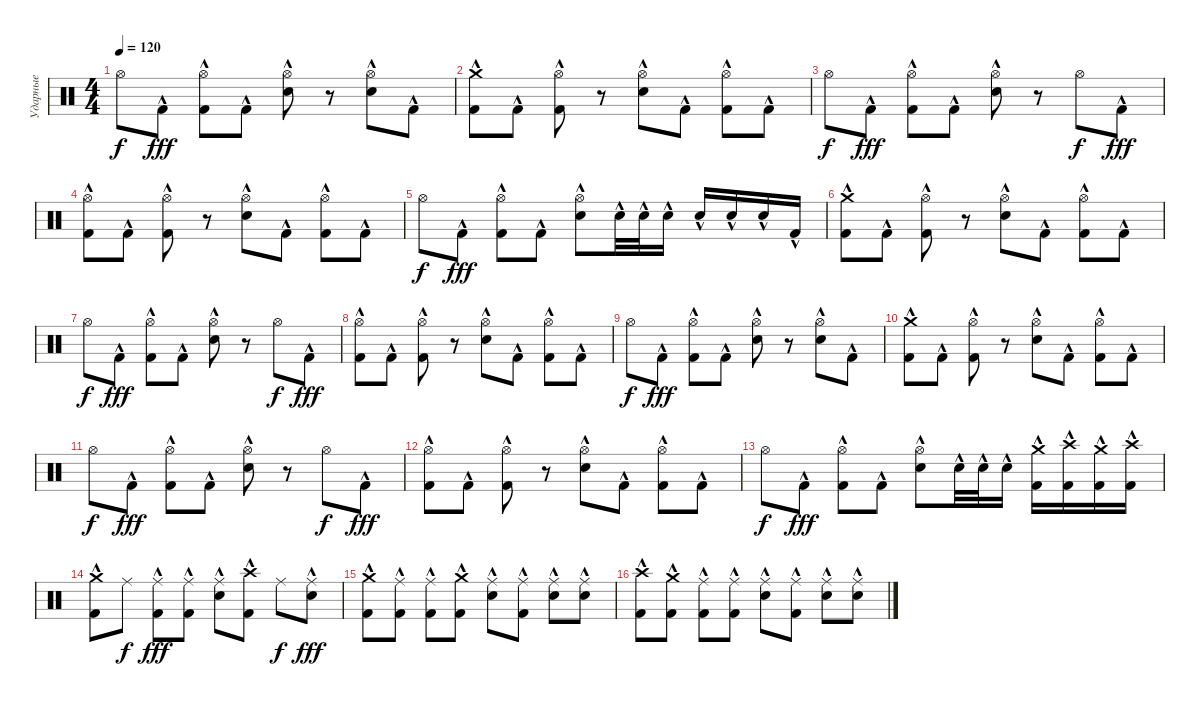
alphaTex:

\track ("Ударные" "Ударные") {instrument percussion}
\staff
\articulation defaults
\ts (4 4)
\tempo 120
\clef neutral
\ks c "Hi-Hat (open)".8{dy f} "Kick (hit) 2"{hac}.8{dy fff}
("Hi-Hat (open)" "Kick (hit) 2"{hac}).8 "Kick (hit) 2"{hac}.8 ("Hi-Hat (open)" "Snare (hit) 2"{hac}).8 r.8 ("Hi-Hat (open)" "Snare (hit) 2"{hac}).8 "Kick (hit) 2"{hac}.8 |
("Crash medium (hit)" "Kick (hit) 2"{hac}).8 "Kick (hit) 2"{hac}.8 ("Hi-Hat (open)" "Kick (hit) 2"{hac}).8 r.8 ("Hi-Hat (open)" "Snare (hit) 2"{hac}).8 "Kick (hit) 2"{hac}.8 ("Hi-Hat (open)" "Kick (hit) 2"{hac}).8 "Kick (hit) 2"{hac}.8 |
"Hi-Hat (open)".8{dy f} "Kick (hit) 2"{hac}.8{dy fff} ("Hi-Hat (open)" "Kick (hit) 2"{hac}).8 "Kick (hit) 2"{hac}.8 ("Hi-Hat (open)" "Snare (hit) 2"{hac}).8 r.8 "Hi-Hat (open)".8{dy f} "Kick (hit) 2"{hac}.8{dy fff} |
("Hi-Hat (open)" "Kick (hit) 2"{hac}).8 "Kick (hit) 2"{hac}.8 ("Hi-Hat (open)" "Kick (hit) 2"{hac}).8 r.8 ("Hi-Hat (open)" "Snare (hit) 2"{hac}).8 "Kick (hit) 2"{hac}.8 ("Hi-Hat (open)" "Kick (hit) 2"{hac}).8 "Kick (hit) 2"{hac}.8 |
"Hi-Hat (open)".8{dy f} "Kick (hit) 2"{hac}.8{dy fff} ("Hi-Hat (open)" "Kick (hit) 2"{hac}).8 "Kick (hit) 2"{hac}.8 ("Hi-Hat (open)" "Snare (hit) 2"{hac}).8 "Snare (hit) 2"{hac}.32 "Snare (hit) 2"{hac}.32 "Snare (hit) 2"{hac}.16 "Snare (hit) 2"{hac}.16 "Snare (hit) 2"{hac}.16 "Snare (hit) 2"{hac}.16 "Kick (hit) 2"{hac}.16 |
("Crash medium (hit)" "Kick (hit) 2"{hac}).8 "Kick (hit) 2"{hac}.8 ("Hi-Hat (open)" "Kick (hit) 2"{hac}).8 r.8 ("Hi-Hat (open)" "Snare (hit) 2"{hac}).8 "Kick (hit) 2"{hac}.8 ("Hi-Hat (open)" "Kick (hit) 2"{hac}).8 "Kick (hit) 2"{hac}.8 |
"Hi-Hat (open)".8{dy f} "Kick (hit) 2"{hac}.8{dy fff} ("Hi-Hat (open)" "Kick (hit) 2"{hac}).8 "Kick (hit) 2"{hac}.8 ("Hi-Hat (open)" "Snare (hit) 2"{hac}).8 r.8 "Hi-Hat (open)".8{dy f} "Kick (hit) 2"{hac}.8{dy fff} |
("Hi-Hat (open)" "Kick (hit) 2"{hac}).8 "Kick (hit) 2"{hac}.8 ("Hi-Hat (open)" "Kick (hit) 2"{hac}).8 r.8 ("Hi-Hat (open)" "Snare (hit) 2"{hac}).8 "Kick (hit) 2"{hac}.8 ("Hi-Hat (open)" "Kick (hit) 2"{hac}).8 "Kick (hit) 2"{hac}.8 |
"Hi-Hat (open)".8{dy f} "Kick (hit) 2"{hac}.8{dy fff} ("Hi-Hat (open)" "Kick (hit) 2"{hac}).8 "Kick (hit) 2"{hac}.8 ("Hi-Hat (open)" "Snare (hit) 2"{hac}).8 r.8 ("Hi-Hat (open)" "Snare (hit) 2"{hac}).8 "Kick (hit) 2"{hac}.8 |
("Crash medium (hit)" "Kick (hit) 2"{hac}).8 "Kick (hit) 2"{hac}.8 ("Hi-Hat (open)" "Kick (hit) 2"{hac}).8 r.8 ("Hi-Hat (open)" "Snare (hit) 2"{hac}).8 "Kick (hit) 2"{hac}.8 ("Hi-Hat (open)" "Kick (hit) 2"{hac}).8 "Kick (hit) 2"{hac}.8 |
"Hi-Hat (open)".8{dy f} "Kick (hit) 2"{hac}.8{dy fff} ("Hi-Hat (open)" "Kick (hit) 2"{hac}).8 "Kick (hit) 2"{hac}.8 ("Hi-Hat (open)" "Snare (hit) 2"{hac}).8 r.8 "Hi-Hat (open)".8{dy f} "Kick (hit) 2"{hac}.8{dy fff} |
("Hi-Hat (open)" "Kick (hit) 2"{hac}).8 "Kick (hit) 2"{hac}.8 ("Hi-Hat (open)" "Kick (hit) 2"{hac}).8 r.8 ("Hi-Hat (open)" "Snare (hit) 2"{hac}).8 "Kick (hit) 2"{hac}.8 ("Hi-Hat (open)" "Kick (hit) 2"{hac}).8 "Kick (hit) 2"{hac}.8 |
"Hi-Hat (open)".8{dy f} "Kick (hit) 2"{hac}.8{dy fff} ("Hi-Hat (open)" "Kick (hit) 2"{hac}).8 "Kick (hit) 2"{hac}.8 ("Hi-Hat (open)" "Snare (hit) 2"{hac}).8 "Snare (hit) 2"{hac}.32 "Snare (hit) 2"{hac}.32 "Snare (hit) 2"{hac}.16 ("Crash medium (hit)" "Kick (hit) 2"{hac}).16 ("Crash high (hit)" "Kick (hit) 2"{hac}).16 ("Crash medium (hit)" "Kick (hit) 2"{hac}).16 ("Crash high (hit)" "Kick (hit) 2"{hac}).16 |
("Crash medium (hit)" "Kick (hit) 2"{hac}).8 "Ride (middle)".8{dy f} ("Ride (middle)" "Kick (hit) 2"{hac}).8{dy fff} ("Ride (middle)" "Kick (hit) 2"{hac}).8 ("Ride (middle)" "Snare (hit) 2"{hac}).8 ("Crash high (hit)" "Kick (hit) 2"{hac}).8 "Ride (middle)".8{dy f} ("Ride (middle)" "Snare (hit) 2"{hac}).8{dy fff} |
("Crash medium (hit)" "Kick (hit) 2"{hac}).8 ("Ride (middle)" "Kick (hit) 2"{hac}).8 ("Ride (middle)" "Kick (hit) 2"{hac}).8 ("Crash medium (hit)" "Kick (hit) 2"{hac}).8 ("Ride (middle)" "Snare (hit) 2"{hac}).8 ("Ride (middle)" "Kick (hit) 2"{hac}).8 ("Ride (middle)" "Snare (hit) 2"{hac}).8 ("Ride (middle)" "Snare (hit) 2"{hac}).8 |
("Crash high (hit)" "Kick (hit) 2"{hac}).8 ("Crash medium (hit)" "Kick (hit) 2"{hac}).8 ("Ride (middle)" "Kick (hit) 2"{hac}).8 ("Ride (middle)" "Kick (hit) 2"{hac}).8 ("Ride (middle)" "Snare (hit) 2"{hac}).8 ("Ride (middle)" "Kick (hit) 2"{hac}).8 ("Ride (middle)" "Snare (hit) 2"{hac}).8 ("Ride (middle)" "Snare (hit) 2"{hac}).8
